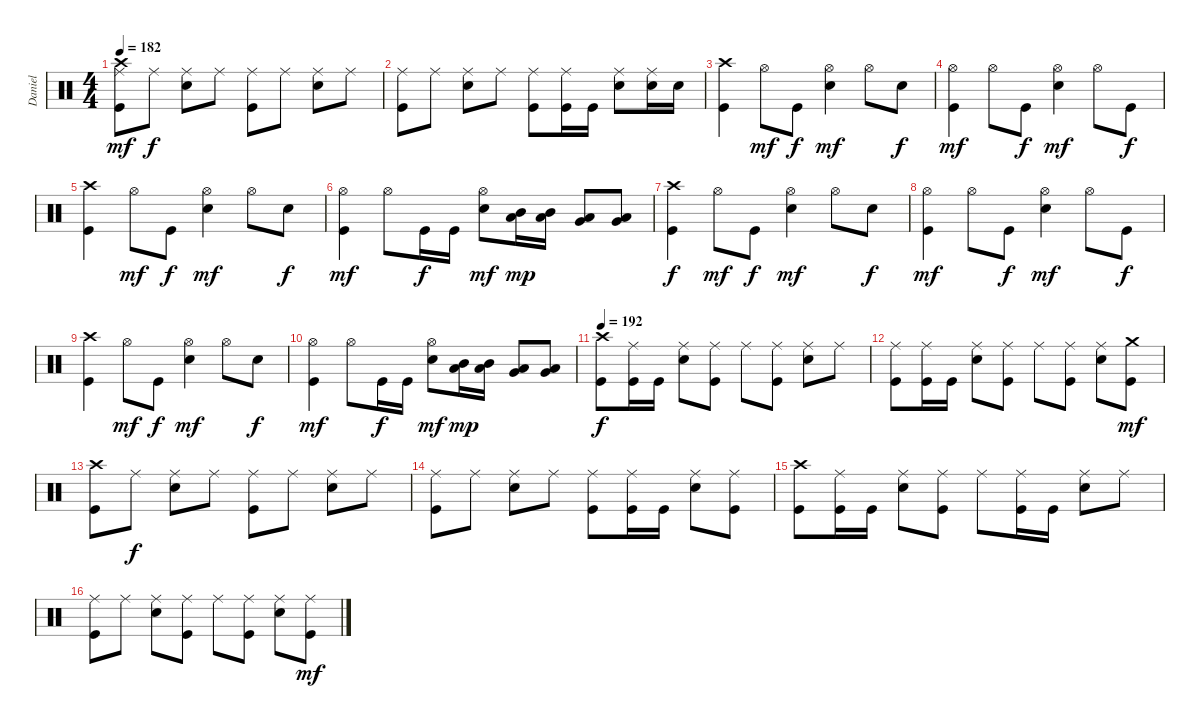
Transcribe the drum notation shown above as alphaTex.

\track ("Daniel" "Daniel") {instrument percussion}
\staff {score}
\articulation defaults
\ts (4 4)
\tempo 182
\clef neutral
\ks c
("Kick (hit)" "Ride (middle)" "Crash high (hit)").8{dy mf} "Ride (middle)".8{dy f} ("Electric Snare (hit)" "Ride (middle)").8 "Ride (middle)".8 ("Kick (hit)" "Ride (middle)").8 "Ride (middle)".8 ("Electric Snare (hit)" "Ride (middle)").8 "Ride (middle)".8 |
("Kick (hit)" "Ride (middle)").8 "Ride (middle)".8 ("Electric Snare (hit)" "Ride (middle)").8 "Ride (middle)".8 ("Kick (hit)" "Ride (middle)").8 ("Kick (hit)" "Ride (middle)").16 "Kick (hit)".16 ("Electric Snare (hit)" "Ride (middle)").8 ("Electric Snare (hit)" "Ride (middle)").16 "Electric Snare (hit)".16 |
("Kick (hit)" "Crash high (hit)").4 "Hi-Hat (open)".8{dy mf} "Kick (hit)".8{dy f} ("Electric Snare (hit)" "Hi-Hat (open)").4{dy mf} "Hi-Hat (open)".8 "Electric Snare (hit)".8{dy f} |
("Kick (hit)" "Hi-Hat (open)").4{dy mf} "Hi-Hat (open)".8 "Kick (hit)".8{dy f} ("Electric Snare (hit)" "Hi-Hat (open)").4{dy mf} "Hi-Hat (open)".8 "Kick (hit)".8{dy f} |
("Kick (hit)" "Crash high (hit)").4 "Hi-Hat (open)".8{dy mf} "Kick (hit)".8{dy f} ("Electric Snare (hit)" "Hi-Hat (open)").4{dy mf} "Hi-Hat (open)".8 "Electric Snare (hit)".8{dy f} |
("Kick (hit)" "Hi-Hat (open)").4{dy mf} "Hi-Hat (open)".8 "Kick (hit)".16{dy f} "Kick (hit)".16 ("Electric Snare (hit)" "Hi-Hat (open)").8{dy mf} ("Low Tom (hit)" "Mid Tom (hit)").16{dy mp} ("Low Tom (hit)" "Mid Tom (hit)").16 ("Very Low Tom (hit)" "Low Tom (hit)").8 ("Low Floor Tom (hit)" "Very Low Tom (hit)").8 |
("Kick (hit)" "Crash high (hit)").4{dy f} "Hi-Hat (open)".8{dy mf} "Kick (hit)".8{dy f} ("Electric Snare (hit)" "Hi-Hat (open)").4{dy mf} "Hi-Hat (open)".8 "Electric Snare (hit)".8{dy f} |
("Kick (hit)" "Hi-Hat (open)").4{dy mf} "Hi-Hat (open)".8 "Kick (hit)".8{dy f} ("Electric Snare (hit)" "Hi-Hat (open)").4{dy mf} "Hi-Hat (open)".8 "Kick (hit)".8{dy f} |
("Kick (hit)" "Crash high (hit)").4 "Hi-Hat (open)".8{dy mf} "Kick (hit)".8{dy f} ("Electric Snare (hit)" "Hi-Hat (open)").4{dy mf} "Hi-Hat (open)".8 "Electric Snare (hit)".8{dy f} |
("Kick (hit)" "Hi-Hat (open)").4{dy mf} "Hi-Hat (open)".8 "Kick (hit)".16{dy f} "Kick (hit)".16 ("Electric Snare (hit)" "Hi-Hat (open)").8{dy mf} ("Low Tom (hit)" "Mid Tom (hit)").16{dy mp} ("Low Tom (hit)" "Mid Tom (hit)").16 ("Very Low Tom (hit)" "Low Tom (hit)").8 ("Low Floor Tom (hit)" "Very Low Tom (hit)").8 |
\tempo 192
("Kick (hit)" "Crash high (hit)").8{dy f} ("Kick (hit)" "Ride (middle)").16 "Kick (hit)".16 ("Electric Snare (hit)" "Ride (middle)").8 ("Kick (hit)" "Ride (middle)").8 "Ride (middle)".8 ("Kick (hit)" "Ride (middle)").8 ("Electric Snare (hit)" "Ride (middle)").8 "Ride (middle)".8 |
("Kick (hit)" "Ride (middle)").8 ("Kick (hit)" "Ride (middle)").16 "Kick (hit)".16 ("Electric Snare (hit)" "Ride (middle)").8 ("Kick (hit)" "Ride (middle)").8 "Ride (middle)".8 ("Kick (hit)" "Ride (middle)").8 ("Electric Snare (hit)" "Ride (middle)").8 ("Kick (hit)" "Crash medium (hit)").8{dy mf} |
("Kick (hit)" "Crash high (hit)").8 "Ride (middle)".8{dy f} ("Electric Snare (hit)" "Ride (middle)").8 "Ride (middle)".8 ("Kick (hit)" "Ride (middle)").8 "Ride (middle)".8 ("Electric Snare (hit)" "Ride (middle)").8 "Ride (middle)".8 |
("Kick (hit)" "Ride (middle)").8 "Ride (middle)".8 ("Electric Snare (hit)" "Ride (middle)").8 "Ride (middle)".8 ("Kick (hit)" "Ride (middle)").8 ("Kick (hit)" "Ride (middle)").16 "Kick (hit)".16 ("Electric Snare (hit)" "Ride (middle)").8 ("Kick (hit)" "Ride (middle)").8 |
("Kick (hit)" "Crash high (hit)").8 ("Kick (hit)" "Ride (middle)").16 "Kick (hit)".16 ("Electric Snare (hit)" "Ride (middle)").8 ("Kick (hit)" "Ride (middle)").8 "Ride (middle)".8 ("Kick (hit)" "Ride (middle)").16 "Kick (hit)".16 ("Electric Snare (hit)" "Ride (middle)").8 "Ride (middle)".8 |
("Kick (hit)" "Ride (middle)").8 "Ride (middle)".8 ("Electric Snare (hit)" "Ride (middle)").8 ("Kick (hit)" "Ride (middle)").8 "Ride (middle)".8 ("Kick (hit)" "Ride (middle)").8 ("Electric Snare (hit)" "Ride (middle)").8 ("Kick (hit)" "Ride (middle)").8{dy mf}
